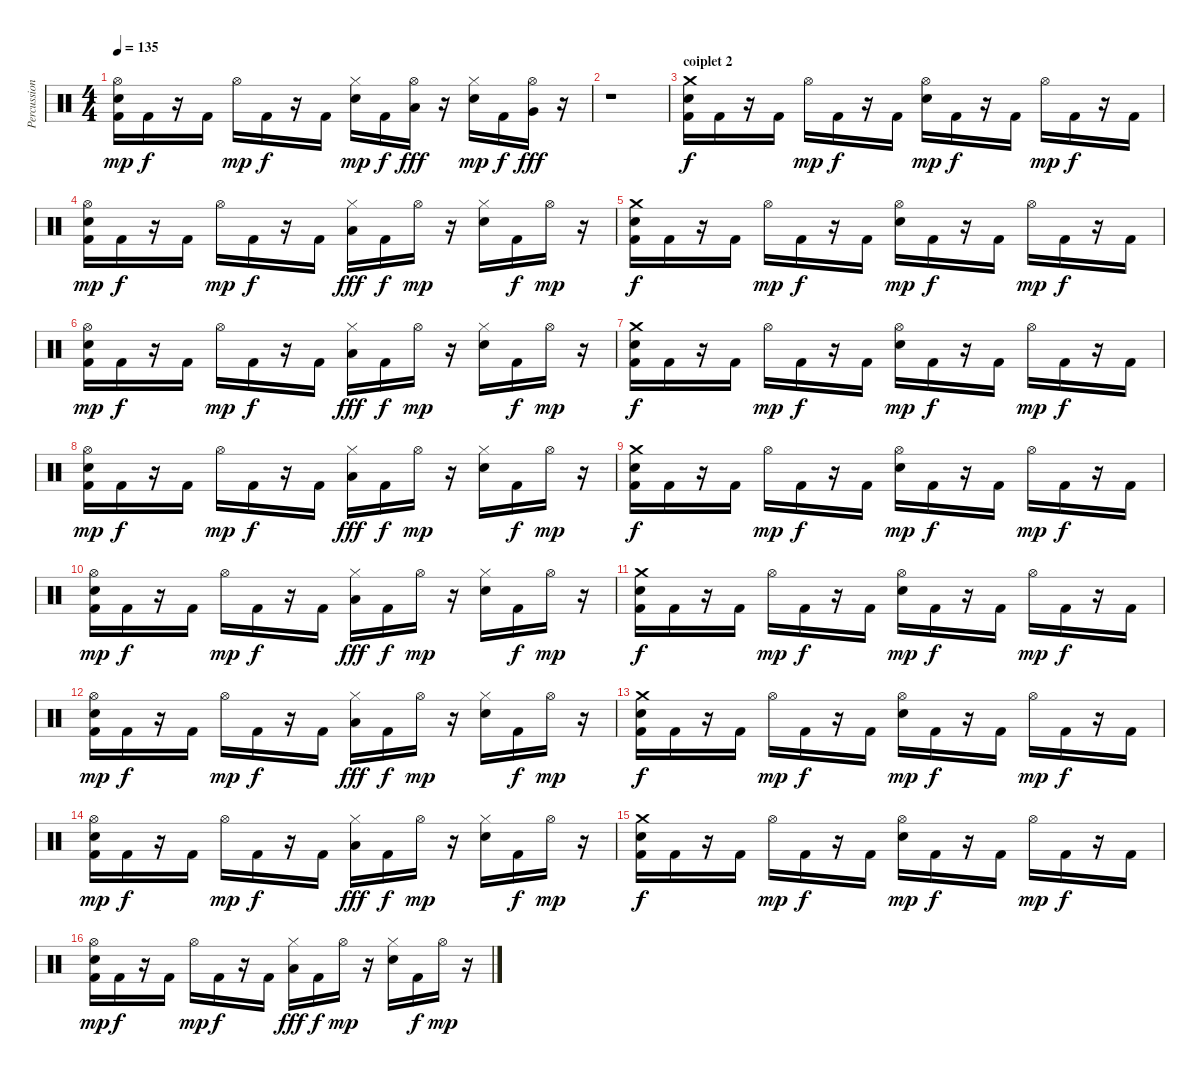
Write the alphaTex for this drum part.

\track ("Percussions" "Percussion") {instrument percussion}
\staff {score}
\articulation defaults
\ts (4 4)
\tempo 135
\clef neutral
\ks c
("Hi-Hat (open)" "Electric Snare (hit)" "Kick (hit) 2").16{dy mp} "Kick (hit) 2".16{dy f} r.16 "Kick (hit) 2".16 "Hi-Hat (open)".16{dy mp} "Kick (hit) 2".16{dy f} r.16 "Kick (hit) 2".16 ("Hi-Hat (closed)" "Electric Snare (hit)").16{dy mp} "Kick (hit) 2".16{dy f} ("Hi-Hat (open)" "Low Tom (hit)").16{dy fff} r.16 ("Hi-Hat (closed)" "Electric Snare (hit)").16{dy mp} "Kick (hit) 2".16{dy f} ("Hi-Hat (open)" "Very Low Tom (hit)").16{dy fff} r.16 |
r.1 |
\section ("" "coiplet 2")
("Crash medium (hit)" "Electric Snare (hit)" "Kick (hit) 2").16{dy f} "Kick (hit) 2".16 r.16 "Kick (hit) 2".16 "Hi-Hat (open)".16{dy mp} "Kick (hit) 2".16{dy f} r.16 "Kick (hit) 2".16 ("Hi-Hat (open)" "Electric Snare (hit)").16{dy mp} "Kick (hit) 2".16{dy f} r.16 "Kick (hit) 2".16 "Hi-Hat (open)".16{dy mp} "Kick (hit) 2".16{dy f} r.16 "Kick (hit) 2".16 |
("Hi-Hat (open)" "Electric Snare (hit)" "Kick (hit) 2").16{dy mp} "Kick (hit) 2".16{dy f} r.16 "Kick (hit) 2".16 "Hi-Hat (open)".16{dy mp} "Kick (hit) 2".16{dy f} r.16 "Kick (hit) 2".16 ("Hi-Hat (closed)" "Low Tom (hit)").16{dy fff} "Kick (hit) 2".16{dy f} "Hi-Hat (open)".16{dy mp} r.16 ("Hi-Hat (closed)" "Electric Snare (hit)").16 "Kick (hit) 2".16{dy f} "Hi-Hat (open)".16{dy mp} r.16 |
("Crash medium (hit)" "Electric Snare (hit)" "Kick (hit) 2").16{dy f} "Kick (hit) 2".16 r.16 "Kick (hit) 2".16 "Hi-Hat (open)".16{dy mp} "Kick (hit) 2".16{dy f} r.16 "Kick (hit) 2".16 ("Hi-Hat (open)" "Electric Snare (hit)").16{dy mp} "Kick (hit) 2".16{dy f} r.16 "Kick (hit) 2".16 "Hi-Hat (open)".16{dy mp} "Kick (hit) 2".16{dy f} r.16 "Kick (hit) 2".16 |
("Hi-Hat (open)" "Electric Snare (hit)" "Kick (hit) 2").16{dy mp} "Kick (hit) 2".16{dy f} r.16 "Kick (hit) 2".16 "Hi-Hat (open)".16{dy mp} "Kick (hit) 2".16{dy f} r.16 "Kick (hit) 2".16 ("Hi-Hat (closed)" "Low Tom (hit)").16{dy fff} "Kick (hit) 2".16{dy f} "Hi-Hat (open)".16{dy mp} r.16 ("Hi-Hat (closed)" "Electric Snare (hit)").16 "Kick (hit) 2".16{dy f} "Hi-Hat (open)".16{dy mp} r.16 |
("Crash medium (hit)" "Electric Snare (hit)" "Kick (hit) 2").16{dy f} "Kick (hit) 2".16 r.16 "Kick (hit) 2".16 "Hi-Hat (open)".16{dy mp} "Kick (hit) 2".16{dy f} r.16 "Kick (hit) 2".16 ("Hi-Hat (open)" "Electric Snare (hit)").16{dy mp} "Kick (hit) 2".16{dy f} r.16 "Kick (hit) 2".16 "Hi-Hat (open)".16{dy mp} "Kick (hit) 2".16{dy f} r.16 "Kick (hit) 2".16 |
("Hi-Hat (open)" "Electric Snare (hit)" "Kick (hit) 2").16{dy mp} "Kick (hit) 2".16{dy f} r.16 "Kick (hit) 2".16 "Hi-Hat (open)".16{dy mp} "Kick (hit) 2".16{dy f} r.16 "Kick (hit) 2".16 ("Hi-Hat (closed)" "Low Tom (hit)").16{dy fff} "Kick (hit) 2".16{dy f} "Hi-Hat (open)".16{dy mp} r.16 ("Hi-Hat (closed)" "Electric Snare (hit)").16 "Kick (hit) 2".16{dy f} "Hi-Hat (open)".16{dy mp} r.16 |
("Crash medium (hit)" "Electric Snare (hit)" "Kick (hit) 2").16{dy f} "Kick (hit) 2".16 r.16 "Kick (hit) 2".16 "Hi-Hat (open)".16{dy mp} "Kick (hit) 2".16{dy f} r.16 "Kick (hit) 2".16 ("Hi-Hat (open)" "Electric Snare (hit)").16{dy mp} "Kick (hit) 2".16{dy f} r.16 "Kick (hit) 2".16 "Hi-Hat (open)".16{dy mp} "Kick (hit) 2".16{dy f} r.16 "Kick (hit) 2".16 |
("Hi-Hat (open)" "Electric Snare (hit)" "Kick (hit) 2").16{dy mp} "Kick (hit) 2".16{dy f} r.16 "Kick (hit) 2".16 "Hi-Hat (open)".16{dy mp} "Kick (hit) 2".16{dy f} r.16 "Kick (hit) 2".16 ("Hi-Hat (closed)" "Low Tom (hit)").16{dy fff} "Kick (hit) 2".16{dy f} "Hi-Hat (open)".16{dy mp} r.16 ("Hi-Hat (closed)" "Electric Snare (hit)").16 "Kick (hit) 2".16{dy f} "Hi-Hat (open)".16{dy mp} r.16 |
("Crash medium (hit)" "Electric Snare (hit)" "Kick (hit) 2").16{dy f} "Kick (hit) 2".16 r.16 "Kick (hit) 2".16 "Hi-Hat (open)".16{dy mp} "Kick (hit) 2".16{dy f} r.16 "Kick (hit) 2".16 ("Hi-Hat (open)" "Electric Snare (hit)").16{dy mp} "Kick (hit) 2".16{dy f} r.16 "Kick (hit) 2".16 "Hi-Hat (open)".16{dy mp} "Kick (hit) 2".16{dy f} r.16 "Kick (hit) 2".16 |
("Hi-Hat (open)" "Electric Snare (hit)" "Kick (hit) 2").16{dy mp} "Kick (hit) 2".16{dy f} r.16 "Kick (hit) 2".16 "Hi-Hat (open)".16{dy mp} "Kick (hit) 2".16{dy f} r.16 "Kick (hit) 2".16 ("Hi-Hat (closed)" "Low Tom (hit)").16{dy fff} "Kick (hit) 2".16{dy f} "Hi-Hat (open)".16{dy mp} r.16 ("Hi-Hat (closed)" "Electric Snare (hit)").16 "Kick (hit) 2".16{dy f} "Hi-Hat (open)".16{dy mp} r.16 |
("Crash medium (hit)" "Electric Snare (hit)" "Kick (hit) 2").16{dy f} "Kick (hit) 2".16 r.16 "Kick (hit) 2".16 "Hi-Hat (open)".16{dy mp} "Kick (hit) 2".16{dy f} r.16 "Kick (hit) 2".16 ("Hi-Hat (open)" "Electric Snare (hit)").16{dy mp} "Kick (hit) 2".16{dy f} r.16 "Kick (hit) 2".16 "Hi-Hat (open)".16{dy mp} "Kick (hit) 2".16{dy f} r.16 "Kick (hit) 2".16 |
("Hi-Hat (open)" "Electric Snare (hit)" "Kick (hit) 2").16{dy mp} "Kick (hit) 2".16{dy f} r.16 "Kick (hit) 2".16 "Hi-Hat (open)".16{dy mp} "Kick (hit) 2".16{dy f} r.16 "Kick (hit) 2".16 ("Hi-Hat (closed)" "Low Tom (hit)").16{dy fff} "Kick (hit) 2".16{dy f} "Hi-Hat (open)".16{dy mp} r.16 ("Hi-Hat (closed)" "Electric Snare (hit)").16 "Kick (hit) 2".16{dy f} "Hi-Hat (open)".16{dy mp} r.16 |
("Crash medium (hit)" "Electric Snare (hit)" "Kick (hit) 2").16{dy f} "Kick (hit) 2".16 r.16 "Kick (hit) 2".16 "Hi-Hat (open)".16{dy mp} "Kick (hit) 2".16{dy f} r.16 "Kick (hit) 2".16 ("Hi-Hat (open)" "Electric Snare (hit)").16{dy mp} "Kick (hit) 2".16{dy f} r.16 "Kick (hit) 2".16 "Hi-Hat (open)".16{dy mp} "Kick (hit) 2".16{dy f} r.16 "Kick (hit) 2".16 |
("Hi-Hat (open)" "Electric Snare (hit)" "Kick (hit) 2").16{dy mp} "Kick (hit) 2".16{dy f} r.16 "Kick (hit) 2".16 "Hi-Hat (open)".16{dy mp} "Kick (hit) 2".16{dy f} r.16 "Kick (hit) 2".16 ("Hi-Hat (closed)" "Low Tom (hit)").16{dy fff} "Kick (hit) 2".16{dy f} "Hi-Hat (open)".16{dy mp} r.16 ("Hi-Hat (closed)" "Electric Snare (hit)").16 "Kick (hit) 2".16{dy f} "Hi-Hat (open)".16{dy mp} r.16
